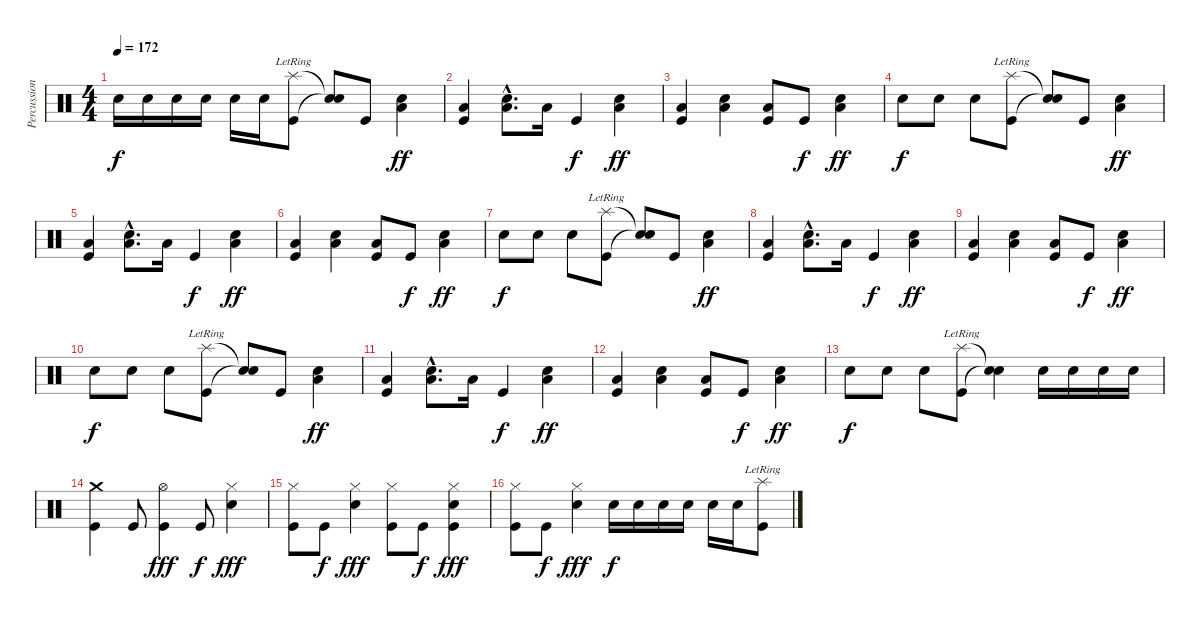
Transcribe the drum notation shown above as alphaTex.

\track ("Percussions" "Percussion") {instrument percussion}
\staff {score}
\articulation defaults
\ts (4 4)
\tempo 172
\clef neutral
\ks c "Snare (hit) 2".16{dy f} "Snare (hit) 2".16 "Snare (hit) 2".16 "Snare (hit) 2".16 "Snare (hit) 2".16 "Snare (hit) 2".16
("Splash (hit)"{lr} "Kick (hit)").8 ("Snare (hit)"{t} "Snare (hit)"{t}).8 "Kick (hit)".8 ("Snare (hit) 2" "Low Floor Tom (hit)").4{dy ff} |
("Low Floor Tom (hit)" "Kick (hit)").4 ("Snare (hit) 2"{hac} "Low Floor Tom (hit)"{hac}).8{d} "Low Floor Tom (hit)".16 "Kick (hit)".4{dy f} ("Snare (hit) 2" "Low Floor Tom (hit)").4{dy ff} |
("Low Floor Tom (hit)" "Kick (hit)").4 ("Snare (hit) 2" "Low Floor Tom (hit)").4 ("Low Floor Tom (hit)" "Kick (hit)").8 "Kick (hit)".8{dy f} ("Snare (hit) 2" "Low Floor Tom (hit)").4{dy ff} |
"Snare (hit) 2".8{dy f} "Snare (hit) 2".8 "Snare (hit) 2".8 ("Splash (hit)"{lr} "Kick (hit)").8 ("Snare (hit)"{t} "Snare (hit)"{t}).8 "Kick (hit)".8 ("Snare (hit) 2" "Low Floor Tom (hit)").4{dy ff} |
("Low Floor Tom (hit)" "Kick (hit)").4 ("Snare (hit) 2"{hac} "Low Floor Tom (hit)"{hac}).8{d} "Low Floor Tom (hit)".16 "Kick (hit)".4{dy f} ("Snare (hit) 2" "Low Floor Tom (hit)").4{dy ff} |
("Low Floor Tom (hit)" "Kick (hit)").4 ("Snare (hit) 2" "Low Floor Tom (hit)").4 ("Low Floor Tom (hit)" "Kick (hit)").8 "Kick (hit)".8{dy f} ("Snare (hit) 2" "Low Floor Tom (hit)").4{dy ff} |
"Snare (hit) 2".8{dy f} "Snare (hit) 2".8 "Snare (hit) 2".8 ("Splash (hit)"{lr} "Kick (hit)").8 ("Snare (hit)"{t} "Snare (hit)"{t}).8 "Kick (hit)".8 ("Snare (hit) 2" "Low Floor Tom (hit)").4{dy ff} |
("Low Floor Tom (hit)" "Kick (hit)").4 ("Snare (hit) 2"{hac} "Low Floor Tom (hit)"{hac}).8{d} "Low Floor Tom (hit)".16 "Kick (hit)".4{dy f} ("Snare (hit) 2" "Low Floor Tom (hit)").4{dy ff} |
("Low Floor Tom (hit)" "Kick (hit)").4 ("Snare (hit) 2" "Low Floor Tom (hit)").4 ("Low Floor Tom (hit)" "Kick (hit)").8 "Kick (hit)".8{dy f} ("Snare (hit) 2" "Low Floor Tom (hit)").4{dy ff} |
"Snare (hit) 2".8{dy f} "Snare (hit) 2".8 "Snare (hit) 2".8 ("Splash (hit)"{lr} "Kick (hit)").8 ("Snare (hit)"{t} "Snare (hit)"{t}).8 "Kick (hit)".8 ("Snare (hit) 2" "Low Floor Tom (hit)").4{dy ff} |
("Low Floor Tom (hit)" "Kick (hit)").4 ("Snare (hit) 2"{hac} "Low Floor Tom (hit)"{hac}).8{d} "Low Floor Tom (hit)".16 "Kick (hit)".4{dy f} ("Snare (hit) 2" "Low Floor Tom (hit)").4{dy ff} |
("Low Floor Tom (hit)" "Kick (hit)").4 ("Snare (hit) 2" "Low Floor Tom (hit)").4 ("Low Floor Tom (hit)" "Kick (hit)").8 "Kick (hit)".8{dy f} ("Snare (hit) 2" "Low Floor Tom (hit)").4{dy ff} |
"Snare (hit) 2".8{dy f} "Snare (hit) 2".8 "Snare (hit) 2".8 ("Splash (hit)"{lr} "Kick (hit)").8 ("Snare (hit)"{t} "Snare (hit)"{t}).4 "Snare (hit) 2".16 "Snare (hit) 2".16 "Snare (hit) 2".16 "Snare (hit) 2".16 |
("Crash medium (hit)" "Kick (hit)").4 "Kick (hit)".8 ("Hi-Hat (open)" "Kick (hit)").4{dy fff} "Kick (hit)".8{dy f} ("Hi-Hat (closed)" "Snare (hit) 2").4{dy fff} |
("Hi-Hat (closed)" "Kick (hit)").8 "Kick (hit)".8{dy f} ("Hi-Hat (closed)" "Snare (hit) 2").4{dy fff} ("Hi-Hat (closed)" "Kick (hit)").8 "Kick (hit)".8{dy f} ("Hi-Hat (closed)" "Snare (hit) 2" "Kick (hit)").4{dy fff} |
("Hi-Hat (closed)" "Kick (hit)").8 "Kick (hit)".8{dy f} ("Hi-Hat (closed)" "Snare (hit) 2").4{dy fff} "Snare (hit) 2".16{dy f} "Snare (hit) 2".16 "Snare (hit) 2".16 "Snare (hit) 2".16 "Snare (hit) 2".16 "Snare (hit) 2".16 ("Splash (hit)"{lr} "Kick (hit)").8
